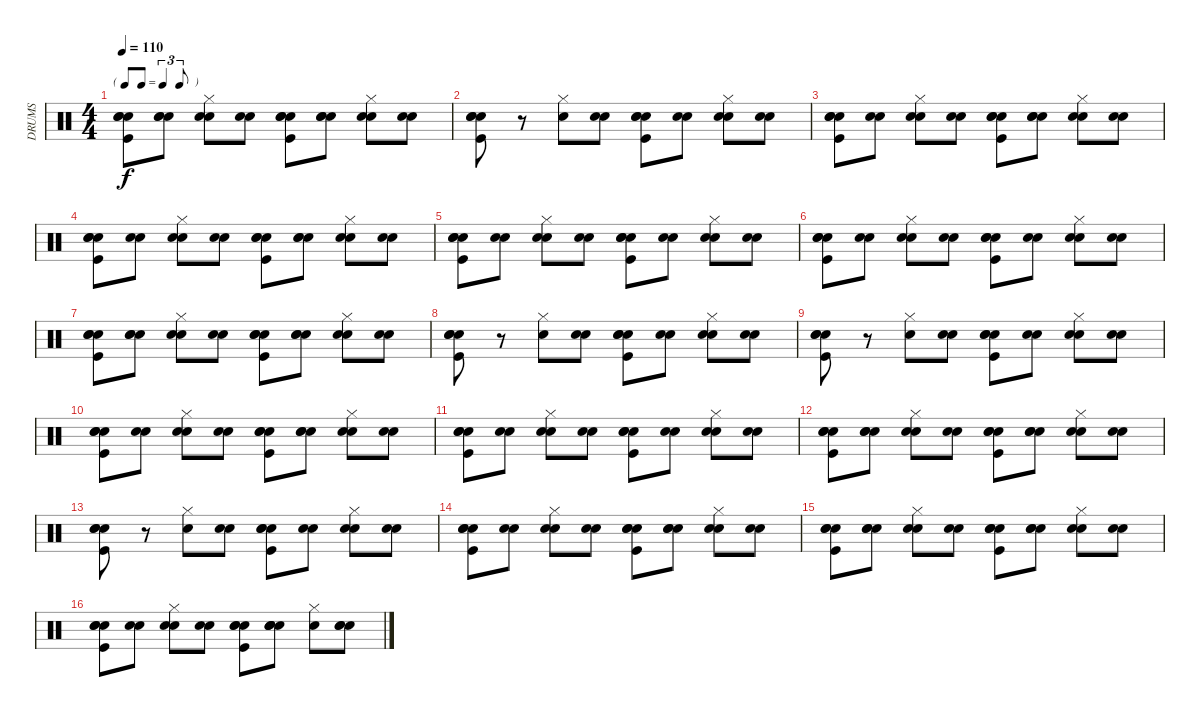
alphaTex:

\track ("DRUMS" "DRUMS") {instrument percussion}
\staff {score}
\articulation defaults
\ts (4 4)
\tf triplet8th
\tempo 110
\clef neutral
\ks c
("Snare (hit)" "Kick (hit)" "Snare (hit) 2" "Electric Snare (hit)").8{dy f} ("Snare (hit)" "Snare (hit) 2" "Electric Snare (hit)").8 ("Snare (hit)" "Snare (hit) 2" "Hi-Hat (closed)").8 ("Snare (hit)" "Snare (hit) 2").8 ("Snare (hit)" "Kick (hit)" "Snare (hit) 2" "Electric Snare (hit)").8 ("Snare (hit)" "Snare (hit) 2" "Electric Snare (hit)").8 ("Snare (hit)" "Snare (hit) 2" "Hi-Hat (closed)").8 ("Snare (hit)" "Snare (hit) 2").8 |
("Snare (hit)" "Kick (hit)" "Snare (hit) 2" "Electric Snare (hit)").8 r.8 ("Snare (hit) 2" "Hi-Hat (closed)").8 ("Snare (hit)" "Snare (hit) 2").8 ("Snare (hit)" "Kick (hit)" "Snare (hit) 2" "Electric Snare (hit)").8 ("Snare (hit)" "Electric Snare (hit)").8 ("Snare (hit)" "Snare (hit) 2" "Hi-Hat (closed)").8 ("Snare (hit)" "Snare (hit) 2").8 |
("Snare (hit)" "Kick (hit)" "Snare (hit) 2" "Electric Snare (hit)").8 ("Snare (hit)" "Electric Snare (hit)").8 ("Snare (hit)" "Snare (hit) 2" "Hi-Hat (closed)").8 ("Snare (hit)" "Snare (hit) 2").8 ("Snare (hit)" "Kick (hit)" "Snare (hit) 2" "Electric Snare (hit)").8 ("Snare (hit)" "Snare (hit) 2" "Electric Snare (hit)").8 ("Snare (hit)" "Snare (hit) 2" "Hi-Hat (closed)").8 ("Snare (hit)" "Snare (hit) 2").8 |
("Snare (hit)" "Kick (hit)" "Snare (hit) 2" "Electric Snare (hit)").8 ("Snare (hit)" "Electric Snare (hit)").8 ("Snare (hit)" "Snare (hit) 2" "Hi-Hat (closed)").8 ("Snare (hit)" "Snare (hit) 2").8 ("Snare (hit)" "Kick (hit)" "Snare (hit) 2" "Electric Snare (hit)").8 ("Snare (hit)" "Snare (hit) 2" "Electric Snare (hit)").8 ("Snare (hit)" "Snare (hit) 2" "Hi-Hat (closed)").8 ("Snare (hit)" "Snare (hit) 2").8 |
("Snare (hit)" "Kick (hit)" "Snare (hit) 2" "Electric Snare (hit)").8 ("Snare (hit)" "Electric Snare (hit)").8 ("Snare (hit)" "Snare (hit) 2" "Hi-Hat (closed)").8 ("Snare (hit)" "Snare (hit) 2").8 ("Snare (hit)" "Kick (hit)" "Snare (hit) 2" "Electric Snare (hit)").8 ("Snare (hit)" "Electric Snare (hit)").8 ("Snare (hit)" "Snare (hit) 2" "Hi-Hat (closed)").8 ("Snare (hit)" "Snare (hit) 2").8 |
("Snare (hit)" "Kick (hit)" "Snare (hit) 2" "Electric Snare (hit)").8 ("Snare (hit)" "Electric Snare (hit)").8 ("Snare (hit)" "Snare (hit) 2" "Hi-Hat (closed)").8 ("Snare (hit)" "Snare (hit) 2").8 ("Snare (hit)" "Kick (hit)" "Snare (hit) 2" "Electric Snare (hit)").8 ("Snare (hit)" "Electric Snare (hit)").8 ("Snare (hit)" "Snare (hit) 2" "Hi-Hat (closed)").8 ("Snare (hit)" "Snare (hit) 2").8 |
("Snare (hit)" "Kick (hit)" "Snare (hit) 2" "Electric Snare (hit)").8 ("Snare (hit)" "Snare (hit) 2" "Electric Snare (hit)").8 ("Snare (hit)" "Snare (hit) 2" "Hi-Hat (closed)").8 ("Snare (hit)" "Snare (hit) 2").8 ("Snare (hit)" "Kick (hit)" "Snare (hit) 2" "Electric Snare (hit)").8 ("Snare (hit)" "Snare (hit) 2" "Electric Snare (hit)").8 ("Snare (hit)" "Snare (hit) 2" "Hi-Hat (closed)").8 ("Snare (hit)" "Snare (hit) 2").8 |
("Snare (hit)" "Kick (hit)" "Snare (hit) 2" "Electric Snare (hit)").8 r.8 ("Snare (hit) 2" "Hi-Hat (closed)").8 ("Snare (hit)" "Snare (hit) 2").8 ("Snare (hit)" "Kick (hit)" "Snare (hit) 2" "Electric Snare (hit)").8 ("Snare (hit)" "Electric Snare (hit)").8 ("Snare (hit)" "Snare (hit) 2" "Hi-Hat (closed)").8 ("Snare (hit)" "Snare (hit) 2").8 |
("Snare (hit)" "Kick (hit)" "Snare (hit) 2" "Electric Snare (hit)").8 r.8 ("Snare (hit) 2" "Hi-Hat (closed)").8 ("Snare (hit)" "Snare (hit) 2").8 ("Snare (hit)" "Kick (hit)" "Snare (hit) 2" "Electric Snare (hit)").8 ("Snare (hit)" "Electric Snare (hit)").8 ("Snare (hit)" "Snare (hit) 2" "Hi-Hat (closed)").8 ("Snare (hit)" "Snare (hit) 2").8 |
("Snare (hit)" "Kick (hit)" "Snare (hit) 2" "Electric Snare (hit)").8 ("Snare (hit)" "Electric Snare (hit)").8 ("Snare (hit)" "Snare (hit) 2" "Hi-Hat (closed)").8 ("Snare (hit)" "Snare (hit) 2").8 ("Snare (hit)" "Kick (hit)" "Snare (hit) 2" "Electric Snare (hit)").8 ("Snare (hit)" "Snare (hit) 2" "Electric Snare (hit)").8 ("Snare (hit)" "Snare (hit) 2" "Hi-Hat (closed)").8 ("Snare (hit)" "Snare (hit) 2").8 |
("Snare (hit)" "Kick (hit)" "Snare (hit) 2" "Electric Snare (hit)").8 ("Snare (hit)" "Electric Snare (hit)").8 ("Snare (hit)" "Snare (hit) 2" "Hi-Hat (closed)").8 ("Snare (hit)" "Snare (hit) 2").8 ("Snare (hit)" "Kick (hit)" "Snare (hit) 2" "Electric Snare (hit)").8 ("Snare (hit)" "Electric Snare (hit)").8 ("Snare (hit)" "Snare (hit) 2" "Hi-Hat (closed)").8 ("Snare (hit)" "Snare (hit) 2").8 |
("Snare (hit)" "Kick (hit)" "Snare (hit) 2" "Electric Snare (hit)").8 ("Snare (hit)" "Snare (hit) 2" "Electric Snare (hit)").8 ("Snare (hit)" "Snare (hit) 2" "Hi-Hat (closed)").8 ("Snare (hit)" "Snare (hit) 2").8 ("Snare (hit)" "Kick (hit)" "Snare (hit) 2" "Electric Snare (hit)").8 ("Snare (hit)" "Snare (hit) 2" "Electric Snare (hit)").8 ("Snare (hit)" "Snare (hit) 2" "Hi-Hat (closed)").8 ("Snare (hit)" "Snare (hit) 2").8 |
("Snare (hit)" "Kick (hit)" "Snare (hit) 2" "Electric Snare (hit)").8 r.8 ("Snare (hit) 2" "Hi-Hat (closed)").8 ("Snare (hit)" "Snare (hit) 2").8 ("Snare (hit)" "Kick (hit)" "Snare (hit) 2" "Electric Snare (hit)").8 ("Snare (hit)" "Electric Snare (hit)").8 ("Snare (hit)" "Snare (hit) 2" "Hi-Hat (closed)").8 ("Snare (hit)" "Snare (hit) 2").8 |
("Snare (hit)" "Kick (hit)" "Snare (hit) 2" "Electric Snare (hit)").8 ("Snare (hit)" "Electric Snare (hit)").8 ("Snare (hit)" "Snare (hit) 2" "Hi-Hat (closed)").8 ("Snare (hit)" "Snare (hit) 2").8 ("Snare (hit)" "Kick (hit)" "Snare (hit) 2" "Electric Snare (hit)").8 ("Snare (hit)" "Snare (hit) 2" "Electric Snare (hit)").8 ("Snare (hit)" "Snare (hit) 2" "Hi-Hat (closed)").8 ("Snare (hit)" "Snare (hit) 2").8 |
("Snare (hit)" "Kick (hit)" "Snare (hit) 2" "Electric Snare (hit)").8 ("Snare (hit)" "Snare (hit) 2" "Electric Snare (hit)").8 ("Snare (hit)" "Snare (hit) 2" "Hi-Hat (closed)").8 ("Snare (hit)" "Snare (hit) 2").8 ("Snare (hit)" "Kick (hit)" "Snare (hit) 2" "Electric Snare (hit)").8 ("Snare (hit)" "Snare (hit) 2" "Electric Snare (hit)").8 ("Snare (hit)" "Snare (hit) 2" "Hi-Hat (closed)").8 ("Snare (hit)" "Snare (hit) 2").8 |
("Snare (hit)" "Kick (hit)" "Snare (hit) 2" "Electric Snare (hit)").8 ("Snare (hit)" "Electric Snare (hit)").8 ("Snare (hit)" "Snare (hit) 2" "Hi-Hat (closed)").8 ("Snare (hit)" "Snare (hit) 2").8 ("Snare (hit)" "Kick (hit)" "Snare (hit) 2" "Electric Snare (hit)").8 ("Snare (hit)" "Snare (hit) 2" "Electric Snare (hit)" "Hand Clap (hit)").8 ("Snare (hit)" "Hi-Hat (closed)").8 ("Snare (hit)" "Snare (hit) 2" "Hand Clap (hit)").8
